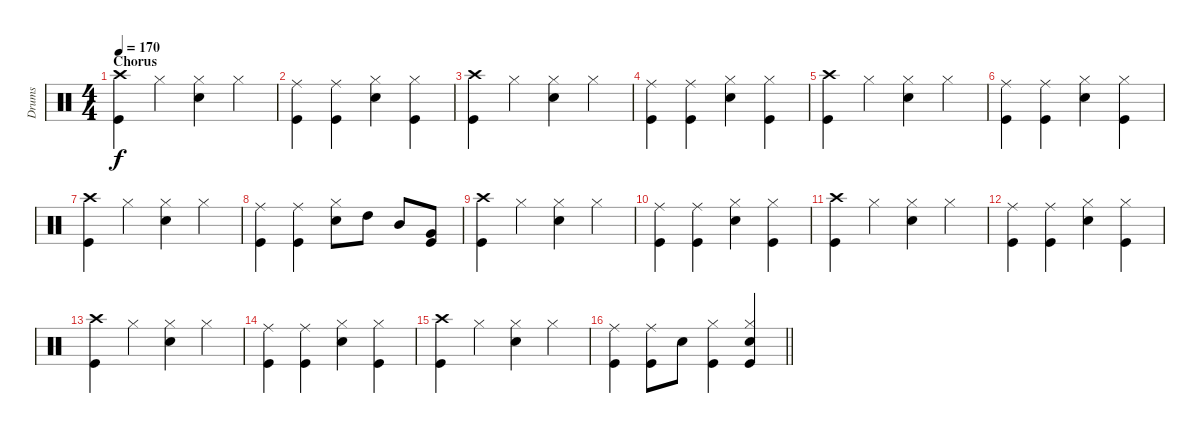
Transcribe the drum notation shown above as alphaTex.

\track ("Drums" "Drums") {instrument percussion}
\staff {score}
\articulation defaults
\ts (4 4)
\section ("" "Chorus")
\tempo 170
\clef neutral
\ks c
("Crash high (hit)" "Kick (hit)").4{dy f} "Hi-Hat (closed)".4 ("Hi-Hat (closed)" "Snare (hit) 2").4 "Hi-Hat (closed)".4 |
("Ride (middle)" "Kick (hit)").4 ("Ride (middle)" "Kick (hit)").4 ("Hi-Hat (closed)" "Snare (hit) 2").4 ("Hi-Hat (closed)" "Kick (hit)").4 |
("Crash high (hit)" "Kick (hit)").4 "Hi-Hat (closed)".4 ("Hi-Hat (closed)" "Snare (hit) 2").4 "Hi-Hat (closed)".4 |
("Ride (middle)" "Kick (hit)").4 ("Ride (middle)" "Kick (hit)").4 ("Hi-Hat (closed)" "Snare (hit) 2").4 ("Hi-Hat (closed)" "Kick (hit)").4 |
("Crash high (hit)" "Kick (hit)").4 "Hi-Hat (closed)".4 ("Hi-Hat (closed)" "Snare (hit) 2").4 "Hi-Hat (closed)".4 |
("Ride (middle)" "Kick (hit)").4 ("Ride (middle)" "Kick (hit)").4 ("Hi-Hat (closed)" "Snare (hit) 2").4 ("Hi-Hat (closed)" "Kick (hit)").4 |
("Crash high (hit)" "Kick (hit)").4 "Hi-Hat (closed)".4 ("Hi-Hat (closed)" "Snare (hit) 2").4 "Hi-Hat (closed)".4 |
("Ride (middle)" "Kick (hit)").4 ("Ride (middle)" "Kick (hit)").4 ("Hi-Hat (closed)" "Snare (hit) 2").8 "High Tom (hit)".8 "Mid Tom (hit)".8 ("Very Low Tom (hit)" "Kick (hit)").8 |
("Crash high (hit)" "Kick (hit)").4 "Hi-Hat (closed)".4 ("Hi-Hat (closed)" "Snare (hit) 2").4 "Hi-Hat (closed)".4 |
("Ride (middle)" "Kick (hit)").4 ("Ride (middle)" "Kick (hit)").4 ("Hi-Hat (closed)" "Snare (hit) 2").4 ("Hi-Hat (closed)" "Kick (hit)").4 |
("Crash high (hit)" "Kick (hit)").4 "Hi-Hat (closed)".4 ("Hi-Hat (closed)" "Snare (hit) 2").4 "Hi-Hat (closed)".4 |
("Ride (middle)" "Kick (hit)").4 ("Ride (middle)" "Kick (hit)").4 ("Hi-Hat (closed)" "Snare (hit) 2").4 ("Hi-Hat (closed)" "Kick (hit)").4 |
("Crash high (hit)" "Kick (hit)").4 "Hi-Hat (closed)".4 ("Hi-Hat (closed)" "Snare (hit) 2").4 "Hi-Hat (closed)".4 |
("Ride (middle)" "Kick (hit)").4 ("Ride (middle)" "Kick (hit)").4 ("Hi-Hat (closed)" "Snare (hit) 2").4 ("Hi-Hat (closed)" "Kick (hit)").4 |
("Crash high (hit)" "Kick (hit)").4 "Hi-Hat (closed)".4 ("Hi-Hat (closed)" "Snare (hit) 2").4 "Hi-Hat (closed)".4 |
\barLineRight lightlight
("Ride (middle)" "Kick (hit)").4 ("Ride (middle)" "Kick (hit)").8 "Snare (hit) 2".8 ("Hi-Hat (closed)" "Kick (hit)").4 ("Hi-Hat (closed)" "Snare (hit) 2" "Kick (hit)").4
